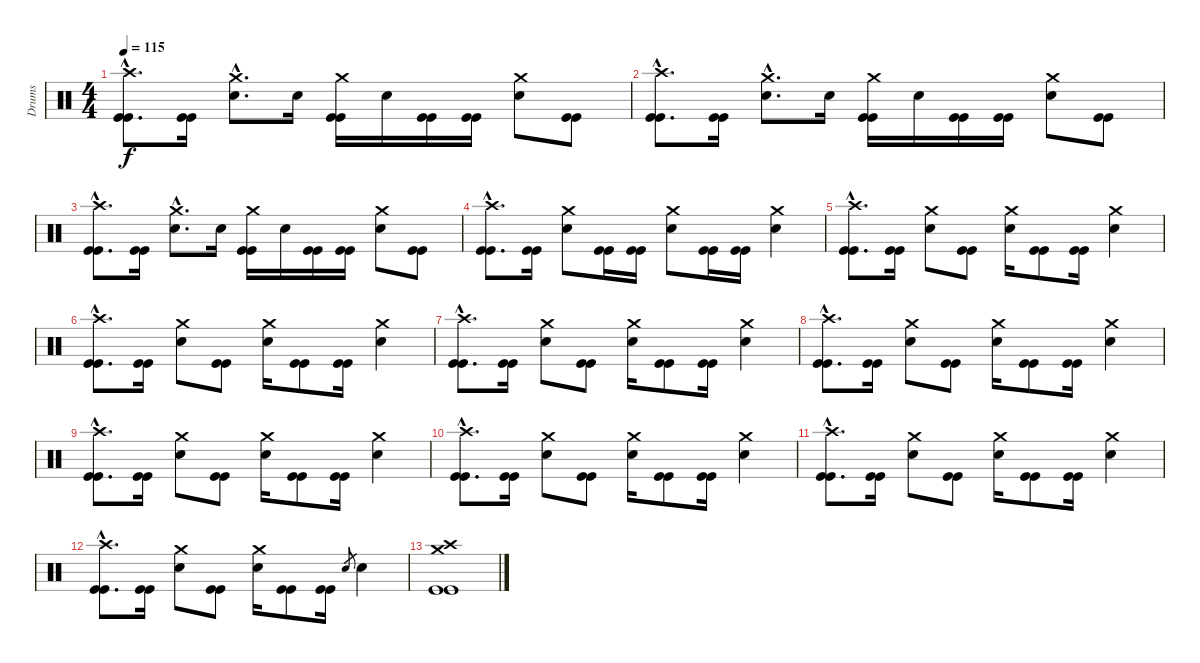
\track ("Drums" "Drums") {instrument percussion}
\staff {score}
\articulation defaults
\ts (4 4)
\tempo 115
\clef neutral
\ks c
("Crash high (hit)"{hac} "Kick (hit)"{hac} "Kick (hit)"{hac}).8{d dy f} ("Kick (hit)" "Kick (hit)").16 ("Crash medium (hit)"{hac} "Electric Snare (hit)"{hac}).8{d} "Electric Snare (hit)".16 ("Crash medium (hit)" "Kick (hit)" "Kick (hit)").16 "Electric Snare (hit)".16 ("Kick (hit)" "Kick (hit)").16 ("Kick (hit)" "Kick (hit)").16 ("Crash medium (hit)" "Electric Snare (hit)").8 ("Kick (hit)" "Kick (hit)").8 |
("Crash high (hit)"{hac} "Kick (hit)"{hac} "Kick (hit)"{hac}).8{d} ("Kick (hit)" "Kick (hit)").16 ("Crash medium (hit)"{hac} "Electric Snare (hit)"{hac}).8{d} "Electric Snare (hit)".16 ("Crash medium (hit)" "Kick (hit)" "Kick (hit)").16 "Electric Snare (hit)".16 ("Kick (hit)" "Kick (hit)").16 ("Kick (hit)" "Kick (hit)").16 ("Crash medium (hit)" "Electric Snare (hit)").8 ("Kick (hit)" "Kick (hit)").8 |
("Crash high (hit)"{hac} "Kick (hit)"{hac} "Kick (hit)"{hac}).8{d} ("Kick (hit)" "Kick (hit)").16 ("Crash medium (hit)"{hac} "Electric Snare (hit)"{hac}).8{d} "Electric Snare (hit)".16 ("Crash medium (hit)" "Kick (hit)" "Kick (hit)").16 "Electric Snare (hit)".16 ("Kick (hit)" "Kick (hit)").16 ("Kick (hit)" "Kick (hit)").16 ("Crash medium (hit)" "Electric Snare (hit)").8 ("Kick (hit)" "Kick (hit)").8 |
("Crash high (hit)"{hac} "Kick (hit)"{hac} "Kick (hit)"{hac}).8{d} ("Kick (hit)" "Kick (hit)").16 ("Crash medium (hit)" "Electric Snare (hit)").8 ("Kick (hit)" "Kick (hit)").16 ("Kick (hit)" "Kick (hit)").16 ("Crash medium (hit)" "Electric Snare (hit)").8 ("Kick (hit)" "Kick (hit)").16 ("Kick (hit)" "Kick (hit)").16 ("Crash medium (hit)" "Electric Snare (hit)").4 |
("Crash high (hit)"{hac} "Kick (hit)"{hac} "Kick (hit)"{hac}).8{d} ("Kick (hit)" "Kick (hit)").16 ("Crash medium (hit)" "Electric Snare (hit)").8 ("Kick (hit)" "Kick (hit)").8 ("Crash medium (hit)" "Electric Snare (hit)").16 ("Kick (hit)" "Kick (hit)").8 ("Kick (hit)" "Kick (hit)").16 ("Crash medium (hit)" "Electric Snare (hit)").4 |
("Crash high (hit)"{hac} "Kick (hit)"{hac} "Kick (hit)"{hac}).8{d} ("Kick (hit)" "Kick (hit)").16 ("Crash medium (hit)" "Electric Snare (hit)").8 ("Kick (hit)" "Kick (hit)").8 ("Crash medium (hit)" "Electric Snare (hit)").16 ("Kick (hit)" "Kick (hit)").8 ("Kick (hit)" "Kick (hit)").16 ("Crash medium (hit)" "Electric Snare (hit)").4 |
("Crash high (hit)"{hac} "Kick (hit)"{hac} "Kick (hit)"{hac}).8{d} ("Kick (hit)" "Kick (hit)").16 ("Crash medium (hit)" "Electric Snare (hit)").8 ("Kick (hit)" "Kick (hit)").8 ("Crash medium (hit)" "Electric Snare (hit)").16 ("Kick (hit)" "Kick (hit)").8 ("Kick (hit)" "Kick (hit)").16 ("Crash medium (hit)" "Electric Snare (hit)").4 |
("Crash high (hit)"{hac} "Kick (hit)"{hac} "Kick (hit)"{hac}).8{d} ("Kick (hit)" "Kick (hit)").16 ("Crash medium (hit)" "Electric Snare (hit)").8 ("Kick (hit)" "Kick (hit)").8 ("Crash medium (hit)" "Electric Snare (hit)").16 ("Kick (hit)" "Kick (hit)").8 ("Kick (hit)" "Kick (hit)").16 ("Crash medium (hit)" "Electric Snare (hit)").4 |
("Crash high (hit)"{hac} "Kick (hit)"{hac} "Kick (hit)"{hac}).8{d} ("Kick (hit)" "Kick (hit)").16 ("Crash medium (hit)" "Electric Snare (hit)").8 ("Kick (hit)" "Kick (hit)").8 ("Crash medium (hit)" "Electric Snare (hit)").16 ("Kick (hit)" "Kick (hit)").8 ("Kick (hit)" "Kick (hit)").16 ("Crash medium (hit)" "Electric Snare (hit)").4 |
("Crash high (hit)"{hac} "Kick (hit)"{hac} "Kick (hit)"{hac}).8{d} ("Kick (hit)" "Kick (hit)").16 ("Crash medium (hit)" "Electric Snare (hit)").8 ("Kick (hit)" "Kick (hit)").8 ("Crash medium (hit)" "Electric Snare (hit)").16 ("Kick (hit)" "Kick (hit)").8 ("Kick (hit)" "Kick (hit)").16 ("Crash medium (hit)" "Electric Snare (hit)").4 |
("Crash high (hit)"{hac} "Kick (hit)"{hac} "Kick (hit)"{hac}).8{d} ("Kick (hit)" "Kick (hit)").16 ("Crash medium (hit)" "Electric Snare (hit)").8 ("Kick (hit)" "Kick (hit)").8 ("Crash medium (hit)" "Electric Snare (hit)").16 ("Kick (hit)" "Kick (hit)").8 ("Kick (hit)" "Kick (hit)").16 ("Crash medium (hit)" "Electric Snare (hit)").4 |
("Crash high (hit)"{hac} "Kick (hit)"{hac} "Kick (hit)"{hac}).8{d} ("Kick (hit)" "Kick (hit)").16 ("Crash medium (hit)" "Electric Snare (hit)").8 ("Kick (hit)" "Kick (hit)").8 ("Crash medium (hit)" "Electric Snare (hit)").16 ("Kick (hit)" "Kick (hit)").8 ("Kick (hit)" "Kick (hit)").16 "Electric Snare (hit)".8{gr} "Electric Snare (hit)".4 |
("Crash high (hit)" "Crash medium (hit)" "Kick (hit)" "Kick (hit)").1
